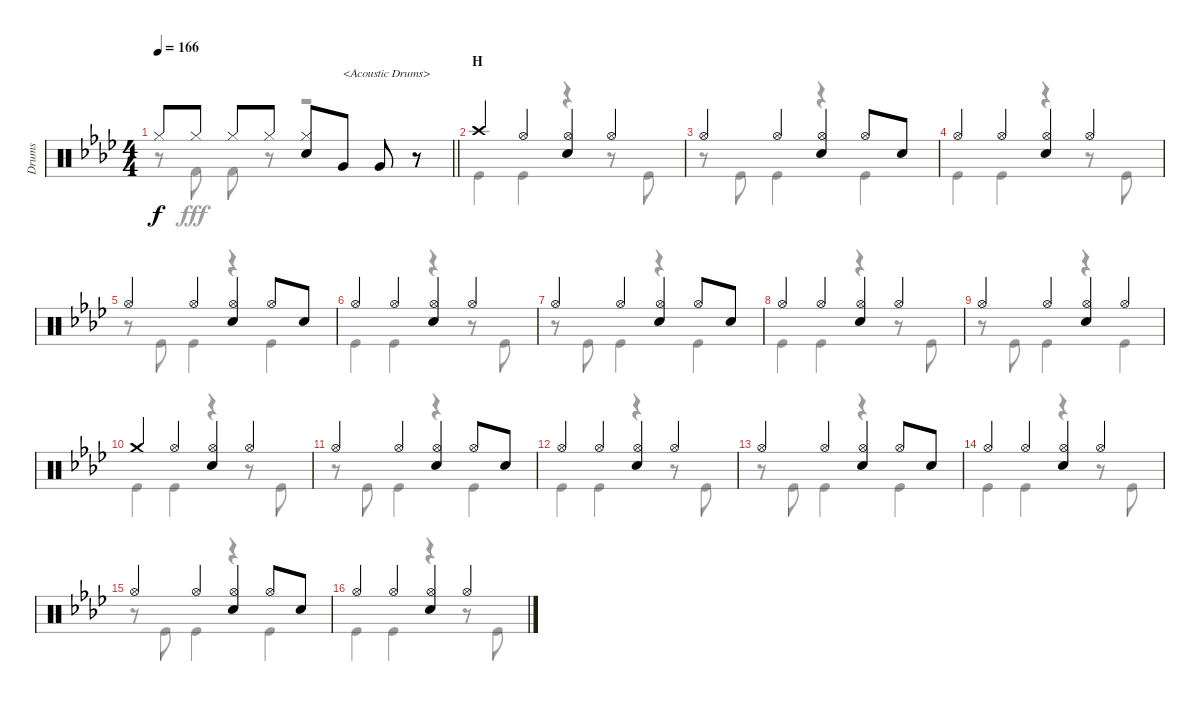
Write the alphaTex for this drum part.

\track ("Drums" "Drums") {instrument percussion}
\staff {score}
\articulation defaults
\voice
\ts (4 4)
\tempo 166
\clef neutral
\barLineRight lightlight
\ks ab "Hi-Hat (closed)".8{dy f} "Hi-Hat (closed)".8 "Hi-Hat (closed)".8 "Hi-Hat (closed)".8
("Hi-Hat (closed)" "Snare (hit) 2").8 "Very Low Tom (hit)".8{txt "<Acoustic Drums>"} "Very Low Tom (hit)".8 r.8 |
\section ("" "H")
"Crash high (hit)".4 "Hi-Hat (open)".4 ("Hi-Hat (open)" "Snare (hit) 2").4 "Hi-Hat (open)".4 |
"Hi-Hat (open)".4 "Hi-Hat (open)".4 ("Hi-Hat (open)" "Snare (hit) 2").4 "Hi-Hat (open)".8 "Snare (hit) 2".8 |
"Hi-Hat (open)".4 "Hi-Hat (open)".4 ("Hi-Hat (open)" "Snare (hit) 2").4 "Hi-Hat (open)".4 |
"Hi-Hat (open)".4 "Hi-Hat (open)".4 ("Hi-Hat (open)" "Snare (hit) 2").4 "Hi-Hat (open)".8 "Snare (hit) 2".8 |
"Hi-Hat (open)".4 "Hi-Hat (open)".4 ("Hi-Hat (open)" "Snare (hit) 2").4 "Hi-Hat (open)".4 |
"Hi-Hat (open)".4 "Hi-Hat (open)".4 ("Hi-Hat (open)" "Snare (hit) 2").4 "Hi-Hat (open)".8 "Snare (hit) 2".8 |
"Hi-Hat (open)".4 "Hi-Hat (open)".4 ("Hi-Hat (open)" "Snare (hit) 2").4 "Hi-Hat (open)".4 |
"Hi-Hat (open)".4 "Hi-Hat (open)".4 ("Hi-Hat (open)" "Snare (hit) 2").4 "Hi-Hat (open)".4 |
"Crash medium (hit)".4 "Hi-Hat (open)".4 ("Hi-Hat (open)" "Snare (hit) 2").4 "Hi-Hat (open)".4 |
"Hi-Hat (open)".4 "Hi-Hat (open)".4 ("Hi-Hat (open)" "Snare (hit) 2").4 "Hi-Hat (open)".8 "Snare (hit) 2".8 |
"Hi-Hat (open)".4 "Hi-Hat (open)".4 ("Hi-Hat (open)" "Snare (hit) 2").4 "Hi-Hat (open)".4 |
"Hi-Hat (open)".4 "Hi-Hat (open)".4 ("Hi-Hat (open)" "Snare (hit) 2").4 "Hi-Hat (open)".8 "Snare (hit) 2".8 |
"Hi-Hat (open)".4 "Hi-Hat (open)".4 ("Hi-Hat (open)" "Snare (hit) 2").4 "Hi-Hat (open)".4 |
"Hi-Hat (open)".4 "Hi-Hat (open)".4 ("Hi-Hat (open)" "Snare (hit) 2").4 "Hi-Hat (open)".8 "Snare (hit) 2".8 |
"Hi-Hat (open)".4 "Hi-Hat (open)".4 ("Hi-Hat (open)" "Snare (hit) 2").4 "Hi-Hat (open)".4
\voice
\clef neutral
\ottava regular
\simile none
\barLineRight lightlight
\ks ab
r.8{dy fff} "Kick (hit) 2".8 "Kick (hit) 2".8 r.8 r.2 |
"Kick (hit)".4 "Kick (hit)".4 r.4 r.8 "Kick (hit)".8 |
r.8 "Kick (hit)".8 "Kick (hit)".4 r.4 "Kick (hit)".4 |
"Kick (hit)".4 "Kick (hit)".4 r.4 r.8 "Kick (hit)".8 |
r.8 "Kick (hit)".8 "Kick (hit)".4 r.4 "Kick (hit)".4 |
"Kick (hit)".4 "Kick (hit)".4 r.4 r.8 "Kick (hit)".8 |
r.8 "Kick (hit)".8 "Kick (hit)".4 r.4 "Kick (hit)".4 |
"Kick (hit)".4 "Kick (hit)".4 r.4 r.8 "Kick (hit)".8 |
r.8 "Kick (hit)".8 "Kick (hit)".4 r.4 "Kick (hit)".4 |
"Kick (hit)".4 "Kick (hit)".4 r.4 r.8 "Kick (hit)".8 |
r.8 "Kick (hit)".8 "Kick (hit)".4 r.4 "Kick (hit)".4 |
"Kick (hit)".4 "Kick (hit)".4 r.4 r.8 "Kick (hit)".8 |
r.8 "Kick (hit)".8 "Kick (hit)".4 r.4 "Kick (hit)".4 |
"Kick (hit)".4 "Kick (hit)".4 r.4 r.8 "Kick (hit)".8 |
r.8 "Kick (hit)".8 "Kick (hit)".4 r.4 "Kick (hit)".4 |
"Kick (hit)".4 "Kick (hit)".4 r.4 r.8 "Kick (hit)".8
